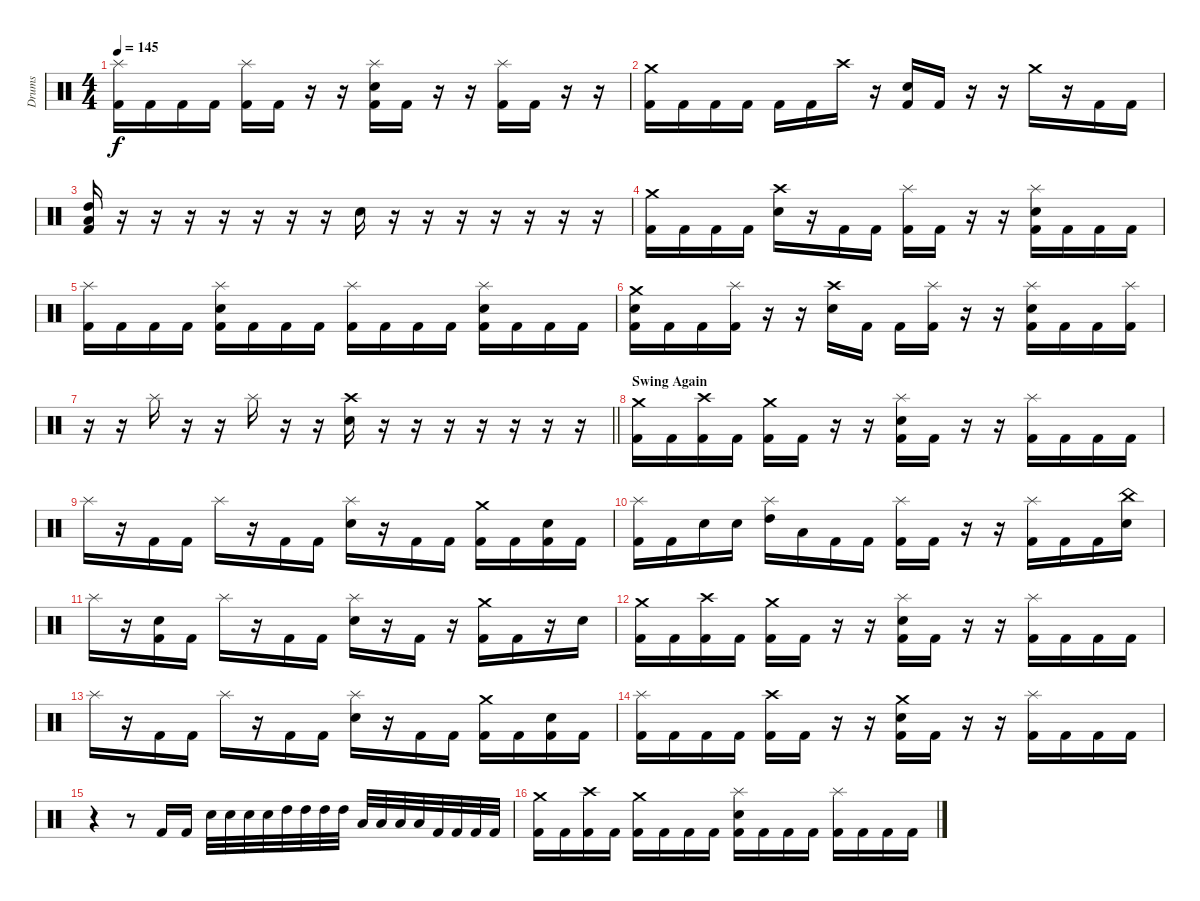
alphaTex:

\track ("Drums" "Drums") {instrument percussion}
\staff {score}
\articulation defaults
\ts (4 4)
\tempo 145
\clef neutral
\ks c
("Splash (hit)" "Kick (hit) 2").16{dy f} "Kick (hit) 2".16 "Kick (hit) 2".16 "Kick (hit) 2".16 ("Splash (hit)" "Kick (hit) 2").16 "Kick (hit) 2".16 r.16 r.16 ("Splash (hit)" "Electric Snare (hit)" "Kick (hit) 2").16 "Kick (hit) 2".16 r.16 r.16 ("Splash (hit)" "Kick (hit) 2").16 "Kick (hit) 2".16 r.16 r.16 |
("Crash medium (hit)" "Kick (hit) 2").16 "Kick (hit) 2".16 "Kick (hit) 2".16 "Kick (hit) 2".16 "Kick (hit) 2".16 "Kick (hit) 2".16 "Crash high (hit)".16 r.16 ("Electric Snare (hit)" "Kick (hit) 2").16 "Kick (hit) 2".16 r.16 r.16 "Crash medium (hit)".16 r.16 "Kick (hit) 2".16 "Kick (hit) 2".16 |
("High Tom (hit)" "Low Tom (hit)" "Kick (hit) 2").16 r.16 r.16 r.16 r.16 r.16 r.16 r.16 "Electric Snare (hit)".16 r.16 r.16 r.16 r.16 r.16 r.16 r.16 |
("Crash medium (hit)" "Kick (hit) 2").16 "Kick (hit) 2".16 "Kick (hit) 2".16 "Kick (hit) 2".16 ("Crash high (hit)" "Electric Snare (hit)").16 r.16 "Kick (hit) 2".16 "Kick (hit) 2".16 ("Splash (hit)" "Kick (hit) 2").16 "Kick (hit) 2".16 r.16 r.16 ("Splash (hit)" "Electric Snare (hit)" "Kick (hit) 2").16 "Kick (hit) 2".16 "Kick (hit) 2".16 "Kick (hit) 2".16 |
("Splash (hit)" "Kick (hit) 2").16 "Kick (hit) 2".16 "Kick (hit) 2".16 "Kick (hit) 2".16 ("Splash (hit)" "Electric Snare (hit)" "Kick (hit) 2").16 "Kick (hit) 2".16 "Kick (hit) 2".16 "Kick (hit) 2".16 ("Splash (hit)" "Kick (hit) 2").16 "Kick (hit) 2".16 "Kick (hit) 2".16 "Kick (hit) 2".16 ("Splash (hit)" "Electric Snare (hit)" "Kick (hit) 2").16 "Kick (hit) 2".16 "Kick (hit) 2".16 "Kick (hit) 2".16 |
("Crash medium (hit)" "Electric Snare (hit)" "Kick (hit) 2").16 "Kick (hit) 2".16 "Kick (hit) 2".16 ("Splash (hit)" "Kick (hit) 2").16 r.16 r.16 ("Crash high (hit)" "Electric Snare (hit)").16 "Kick (hit) 2".16 "Kick (hit) 2".16 ("Splash (hit)" "Kick (hit) 2").16 r.16 r.16 ("Splash (hit)" "Electric Snare (hit)" "Kick (hit) 2").16 "Kick (hit) 2".16 "Kick (hit) 2".16 ("Splash (hit)" "Kick (hit) 2").16 |
\barLineRight lightlight
r.16 r.16 "Splash (hit)".16 r.16 r.16 "Splash (hit)".16 r.16 r.16 ("Crash high (hit)" "Electric Snare (hit)").16 r.16 r.16 r.16 r.16 r.16 r.16 r.16 |
\section ("" "Swing Again")
("Crash medium (hit)" "Kick (hit) 2").16 "Kick (hit) 2".16 ("Crash high (hit)" "Kick (hit) 2").16 "Kick (hit) 2".16 ("Crash medium (hit)" "Kick (hit) 2").16 "Kick (hit) 2".16 r.16 r.16 ("Splash (hit)" "Electric Snare (hit)" "Kick (hit) 2").16 "Kick (hit) 2".16 r.16 r.16 ("Splash (hit)" "Kick (hit) 2").16 "Kick (hit) 2".16 "Kick (hit) 2".16 "Kick (hit) 2".16 |
"Splash (hit)".16 r.16 "Kick (hit) 2".16 "Kick (hit) 2".16 "Splash (hit)".16 r.16 "Kick (hit) 2".16 "Kick (hit) 2".16 ("Splash (hit)" "Electric Snare (hit)").16 r.16 "Kick (hit) 2".16 "Kick (hit) 2".16 ("Crash medium (hit)" "Kick (hit) 2").16 "Kick (hit) 2".16 ("Electric Snare (hit)" "Kick (hit) 2").16 "Kick (hit) 2".16 |
("Splash (hit)" "Kick (hit) 2").16 "Kick (hit) 2".16 "Electric Snare (hit)".16 "Electric Snare (hit)".16 ("Splash (hit)" "High Tom (hit)").16 "Low Tom (hit)".16 "Kick (hit) 2".16 "Kick (hit) 2".16 ("Splash (hit)" "Kick (hit) 2").16 "Kick (hit) 2".16 r.16 r.16 ("Splash (hit)" "Kick (hit) 2").16 "Kick (hit) 2".16 "Kick (hit) 2".16 ("China (hit)" "Electric Snare (hit)").16 |
"Splash (hit)".16 r.16 ("Electric Snare (hit)" "Kick (hit) 2").16 "Kick (hit) 2".16 "Splash (hit)".16 r.16 "Kick (hit) 2".16 "Kick (hit) 2".16 ("Splash (hit)" "Electric Snare (hit)").16 r.16 "Kick (hit) 2".16 r.16 ("Crash medium (hit)" "Kick (hit) 2").16 "Kick (hit) 2".16 r.16 "Electric Snare (hit)".16 |
("Crash medium (hit)" "Kick (hit) 2").16 "Kick (hit) 2".16 ("Crash high (hit)" "Kick (hit) 2").16 "Kick (hit) 2".16 ("Crash medium (hit)" "Kick (hit) 2").16 "Kick (hit) 2".16 r.16 r.16 ("Splash (hit)" "Electric Snare (hit)" "Kick (hit) 2").16 "Kick (hit) 2".16 r.16 r.16 ("Splash (hit)" "Kick (hit) 2").16 "Kick (hit) 2".16 "Kick (hit) 2".16 "Kick (hit) 2".16 |
"Splash (hit)".16 r.16 "Kick (hit) 2".16 "Kick (hit) 2".16 "Splash (hit)".16 r.16 "Kick (hit) 2".16 "Kick (hit) 2".16 ("Splash (hit)" "Electric Snare (hit)").16 r.16 "Kick (hit) 2".16 "Kick (hit) 2".16 ("Crash medium (hit)" "Kick (hit) 2").16 "Kick (hit) 2".16 ("Electric Snare (hit)" "Kick (hit) 2").16 "Kick (hit) 2".16 |
("Splash (hit)" "Kick (hit) 2").16 "Kick (hit) 2".16 "Kick (hit) 2".16 "Kick (hit) 2".16 ("Crash high (hit)" "Kick (hit) 2").16 "Kick (hit) 2".16 r.16 r.16 ("Crash medium (hit)" "Electric Snare (hit)" "Kick (hit) 2").16 "Kick (hit) 2".16 r.16 r.16 ("Splash (hit)" "Kick (hit) 2").16 "Kick (hit) 2".16 "Kick (hit) 2".16 "Kick (hit) 2".16 |
r.4 r.8 "Kick (hit) 2".16 "Kick (hit) 2".16 "Electric Snare (hit)".32 "Electric Snare (hit)".32 "Electric Snare (hit)".32 "Electric Snare (hit)".32 "High Tom (hit)".32 "High Tom (hit)".32 "High Tom (hit)".32 "High Tom (hit)".32 "Low Tom (hit)".32 "Low Tom (hit)".32 "Low Tom (hit)".32 "Low Tom (hit)".32 "Kick (hit) 2".32 "Kick (hit) 2".32 "Kick (hit) 2".32 "Kick (hit) 2".32 |
("Crash medium (hit)" "Kick (hit) 2").16 "Kick (hit) 2".16 ("Crash high (hit)" "Kick (hit) 2").16 "Kick (hit) 2".16 ("Crash medium (hit)" "Kick (hit) 2").16 "Kick (hit) 2".16 "Kick (hit) 2".16 "Kick (hit) 2".16 ("Splash (hit)" "Electric Snare (hit)" "Kick (hit) 2").16 "Kick (hit) 2".16 "Kick (hit) 2".16 "Kick (hit) 2".16 ("Splash (hit)" "Kick (hit) 2").16 "Kick (hit) 2".16 "Kick (hit) 2".16 "Kick (hit) 2".16
